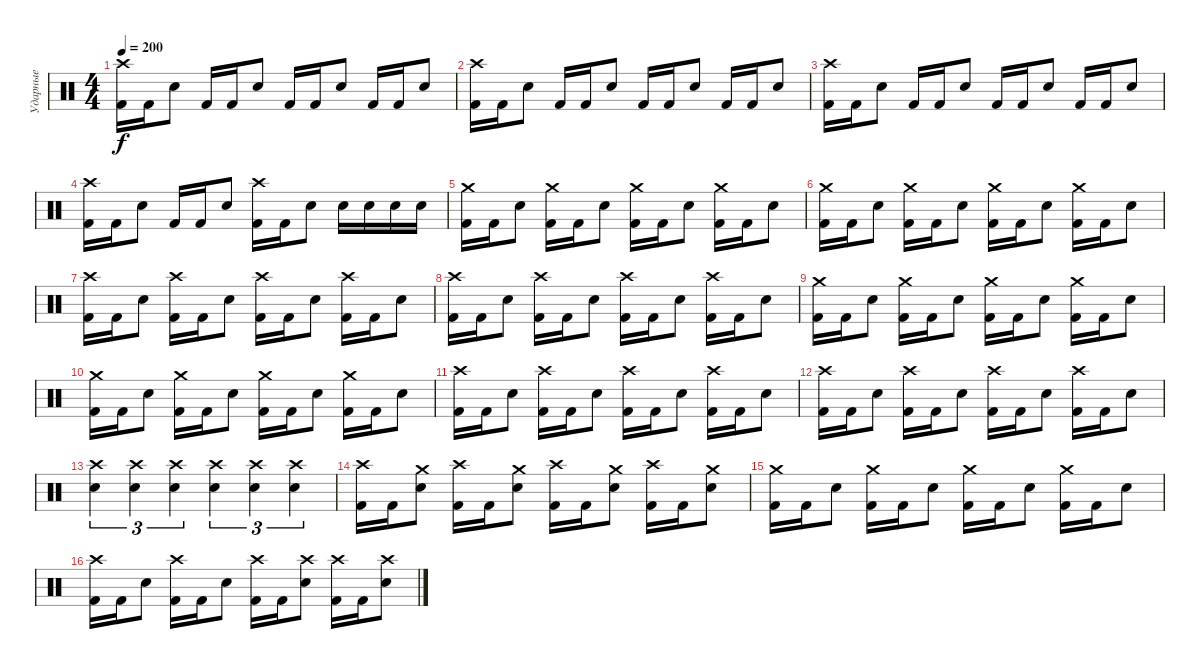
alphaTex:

\track ("Ударные" "Ударные") {instrument percussion}
\staff {score}
\articulation defaults
\ts (4 4)
\tempo 200
\clef neutral
\ks c
("Kick (hit) 2" "Crash high (hit)").16{dy f} "Kick (hit) 2".16 "Electric Snare (hit)".8 "Kick (hit) 2".16 "Kick (hit) 2".16 "Electric Snare (hit)".8 "Kick (hit) 2".16 "Kick (hit) 2".16 "Electric Snare (hit)".8 "Kick (hit) 2".16 "Kick (hit) 2".16 "Electric Snare (hit)".8 |
("Kick (hit) 2" "Crash high (hit)").16 "Kick (hit) 2".16 "Electric Snare (hit)".8 "Kick (hit) 2".16 "Kick (hit) 2".16 "Electric Snare (hit)".8 "Kick (hit) 2".16 "Kick (hit) 2".16 "Electric Snare (hit)".8 "Kick (hit) 2".16 "Kick (hit) 2".16 "Electric Snare (hit)".8 |
("Kick (hit) 2" "Crash high (hit)").16 "Kick (hit) 2".16 "Electric Snare (hit)".8 "Kick (hit) 2".16 "Kick (hit) 2".16 "Electric Snare (hit)".8 "Kick (hit) 2".16 "Kick (hit) 2".16 "Electric Snare (hit)".8 "Kick (hit) 2".16 "Kick (hit) 2".16 "Electric Snare (hit)".8 |
("Kick (hit) 2" "Crash high (hit)").16 "Kick (hit) 2".16 "Electric Snare (hit)".8 "Kick (hit) 2".16 "Kick (hit) 2".16 "Electric Snare (hit)".8 ("Kick (hit) 2" "Crash high (hit)").16 "Kick (hit) 2".16 "Electric Snare (hit)".8 "Electric Snare (hit)".16 "Electric Snare (hit)".16 "Electric Snare (hit)".16 "Electric Snare (hit)".16 |
("Kick (hit) 2" "Crash medium (hit)").16 "Kick (hit) 2".16 "Electric Snare (hit)".8 ("Kick (hit) 2" "Crash medium (hit)").16 "Kick (hit) 2".16 "Electric Snare (hit)".8 ("Kick (hit) 2" "Crash medium (hit)").16 "Kick (hit) 2".16 "Electric Snare (hit)".8 ("Kick (hit) 2" "Crash medium (hit)").16 "Kick (hit) 2".16 "Electric Snare (hit)".8 |
("Kick (hit) 2" "Crash medium (hit)").16 "Kick (hit) 2".16 "Electric Snare (hit)".8 ("Kick (hit) 2" "Crash medium (hit)").16 "Kick (hit) 2".16 "Electric Snare (hit)".8 ("Kick (hit) 2" "Crash medium (hit)").16 "Kick (hit) 2".16 "Electric Snare (hit)".8 ("Kick (hit) 2" "Crash medium (hit)").16 "Kick (hit) 2".16 "Electric Snare (hit)".8 |
("Kick (hit) 2" "Crash high (hit)").16 "Kick (hit) 2".16 "Electric Snare (hit)".8 ("Kick (hit) 2" "Crash high (hit)").16 "Kick (hit) 2".16 "Electric Snare (hit)".8 ("Kick (hit) 2" "Crash high (hit)").16 "Kick (hit) 2".16 "Electric Snare (hit)".8 ("Kick (hit) 2" "Crash high (hit)").16 "Kick (hit) 2".16 "Electric Snare (hit)".8 |
("Kick (hit) 2" "Crash high (hit)").16 "Kick (hit) 2".16 "Electric Snare (hit)".8 ("Kick (hit) 2" "Crash high (hit)").16 "Kick (hit) 2".16 "Electric Snare (hit)".8 ("Kick (hit) 2" "Crash high (hit)").16 "Kick (hit) 2".16 "Electric Snare (hit)".8 ("Kick (hit) 2" "Crash high (hit)").16 "Kick (hit) 2".16 "Electric Snare (hit)".8 |
("Kick (hit) 2" "Crash medium (hit)").16 "Kick (hit) 2".16 "Electric Snare (hit)".8 ("Kick (hit) 2" "Crash medium (hit)").16 "Kick (hit) 2".16 "Electric Snare (hit)".8 ("Kick (hit) 2" "Crash medium (hit)").16 "Kick (hit) 2".16 "Electric Snare (hit)".8 ("Kick (hit) 2" "Crash medium (hit)").16 "Kick (hit) 2".16 "Electric Snare (hit)".8 |
("Kick (hit) 2" "Crash medium (hit)").16 "Kick (hit) 2".16 "Electric Snare (hit)".8 ("Kick (hit) 2" "Crash medium (hit)").16 "Kick (hit) 2".16 "Electric Snare (hit)".8 ("Kick (hit) 2" "Crash medium (hit)").16 "Kick (hit) 2".16 "Electric Snare (hit)".8 ("Kick (hit) 2" "Crash medium (hit)").16 "Kick (hit) 2".16 "Electric Snare (hit)".8 |
("Kick (hit) 2" "Crash high (hit)").16 "Kick (hit) 2".16 "Electric Snare (hit)".8 ("Kick (hit) 2" "Crash high (hit)").16 "Kick (hit) 2".16 "Electric Snare (hit)".8 ("Kick (hit) 2" "Crash high (hit)").16 "Kick (hit) 2".16 "Electric Snare (hit)".8 ("Kick (hit) 2" "Crash high (hit)").16 "Kick (hit) 2".16 "Electric Snare (hit)".8 |
("Kick (hit) 2" "Crash high (hit)").16 "Kick (hit) 2".16 "Electric Snare (hit)".8 ("Kick (hit) 2" "Crash high (hit)").16 "Kick (hit) 2".16 "Electric Snare (hit)".8 ("Kick (hit) 2" "Crash high (hit)").16 "Kick (hit) 2".16 "Electric Snare (hit)".8 ("Kick (hit) 2" "Crash high (hit)").16 "Kick (hit) 2".16 "Electric Snare (hit)".8 |
("Electric Snare (hit)" "Crash high (hit)").4{tu (3 2)} ("Electric Snare (hit)" "Crash high (hit)").4{tu (3 2)} ("Electric Snare (hit)" "Crash high (hit)").4{tu (3 2)} ("Electric Snare (hit)" "Crash high (hit)").4{tu (3 2)} ("Electric Snare (hit)" "Crash high (hit)").4{tu (3 2)} ("Electric Snare (hit)" "Crash high (hit)").4{tu (3 2)} |
("Kick (hit) 2" "Crash high (hit)").16 "Kick (hit) 2".16 ("Electric Snare (hit)" "Crash medium (hit)").8 ("Kick (hit) 2" "Crash high (hit)").16 "Kick (hit) 2".16 ("Electric Snare (hit)" "Crash medium (hit)").8 ("Kick (hit) 2" "Crash high (hit)").16 "Kick (hit) 2".16 ("Electric Snare (hit)" "Crash medium (hit)").8 ("Kick (hit) 2" "Crash high (hit)").16 "Kick (hit) 2".16 ("Electric Snare (hit)" "Crash medium (hit)").8 |
("Kick (hit) 2" "Crash medium (hit)").16 "Kick (hit) 2".16 "Electric Snare (hit)".8 ("Kick (hit) 2" "Crash medium (hit)").16 "Kick (hit) 2".16 "Electric Snare (hit)".8 ("Kick (hit) 2" "Crash medium (hit)").16 "Kick (hit) 2".16 "Electric Snare (hit)".8 ("Kick (hit) 2" "Crash medium (hit)").16 "Kick (hit) 2".16 "Electric Snare (hit)".8 |
("Kick (hit) 2" "Crash high (hit)").16 "Kick (hit) 2".16 "Electric Snare (hit)".8 ("Kick (hit) 2" "Crash high (hit)").16 "Kick (hit) 2".16 "Electric Snare (hit)".8 ("Kick (hit) 2" "Crash high (hit)").16 "Kick (hit) 2".16 ("Electric Snare (hit)" "Crash high (hit)").8 ("Kick (hit) 2" "Crash high (hit)").16 "Kick (hit) 2".16 ("Electric Snare (hit)" "Crash high (hit)").8
